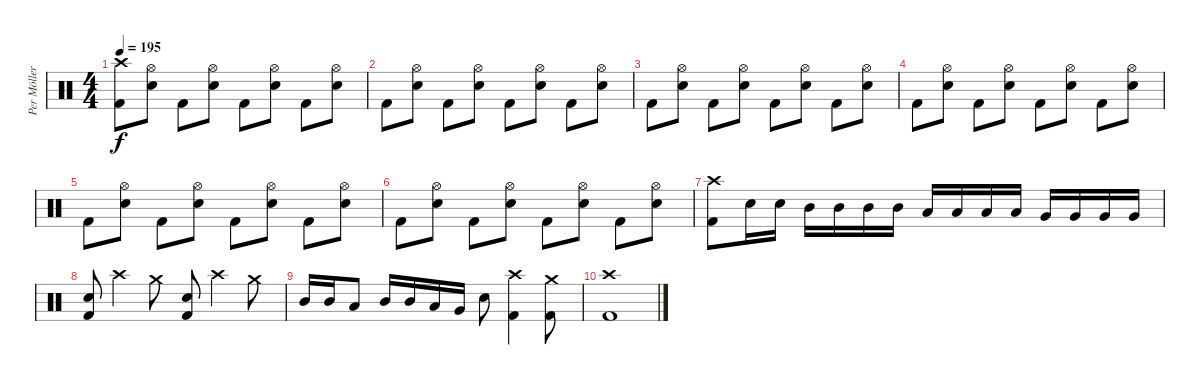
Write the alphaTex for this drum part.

\track ("Per Möller Jensen" "Per Möller") {instrument percussion}
\staff {score}
\articulation defaults
\ts (4 4)
\tempo 195
\clef neutral
\ks c
("Crash high (hit)" "Kick (hit) 2").8{dy f} ("Hi-Hat (open)" "Snare (hit) 2").8 "Kick (hit) 2".8 ("Hi-Hat (open)" "Snare (hit) 2").8 "Kick (hit) 2".8 ("Hi-Hat (open)" "Snare (hit) 2").8 "Kick (hit) 2".8 ("Hi-Hat (open)" "Snare (hit) 2").8 |
"Kick (hit) 2".8 ("Hi-Hat (open)" "Snare (hit) 2").8 "Kick (hit) 2".8 ("Hi-Hat (open)" "Snare (hit) 2").8 "Kick (hit) 2".8 ("Hi-Hat (open)" "Snare (hit) 2").8 "Kick (hit) 2".8 ("Hi-Hat (open)" "Snare (hit) 2").8 |
"Kick (hit) 2".8 ("Hi-Hat (open)" "Snare (hit) 2").8 "Kick (hit) 2".8 ("Hi-Hat (open)" "Snare (hit) 2").8 "Kick (hit) 2".8 ("Hi-Hat (open)" "Snare (hit) 2").8 "Kick (hit) 2".8 ("Hi-Hat (open)" "Snare (hit) 2").8 |
"Kick (hit) 2".8 ("Hi-Hat (open)" "Snare (hit) 2").8 "Kick (hit) 2".8 ("Hi-Hat (open)" "Snare (hit) 2").8 "Kick (hit) 2".8 ("Hi-Hat (open)" "Snare (hit) 2").8 "Kick (hit) 2".8 ("Hi-Hat (open)" "Snare (hit) 2").8 |
"Kick (hit) 2".8 ("Hi-Hat (open)" "Snare (hit) 2").8 "Kick (hit) 2".8 ("Hi-Hat (open)" "Snare (hit) 2").8 "Kick (hit) 2".8 ("Hi-Hat (open)" "Snare (hit) 2").8 "Kick (hit) 2".8 ("Hi-Hat (open)" "Snare (hit) 2").8 |
"Kick (hit) 2".8 ("Hi-Hat (open)" "Snare (hit) 2").8 "Kick (hit) 2".8 ("Hi-Hat (open)" "Snare (hit) 2").8 "Kick (hit) 2".8 ("Hi-Hat (open)" "Snare (hit) 2").8 "Kick (hit) 2".8 ("Hi-Hat (open)" "Snare (hit) 2").8 |
("Crash high (hit)" "Kick (hit) 2").8 "Snare (hit) 2".16 "Snare (hit) 2".16 "Mid Tom (hit)".16 "Mid Tom (hit)".16 "Mid Tom (hit)".16 "Mid Tom (hit)".16 "Low Tom (hit)".16 "Low Tom (hit)".16 "Low Tom (hit)".16 "Low Tom (hit)".16 "Very Low Tom (hit)".16 "Very Low Tom (hit)".16 "Very Low Tom (hit)".16 "Very Low Tom (hit)".16 |
("Snare (hit) 2" "Kick (hit) 2").8 "Crash high (hit)".4 "Crash medium (hit)".8 ("Snare (hit) 2" "Kick (hit) 2").8 "Crash high (hit)".4 "Crash medium (hit)".8 |
"Mid Tom (hit)".16 "Mid Tom (hit)".16 "Low Tom (hit)".8 "Mid Tom (hit)".16 "Mid Tom (hit)".16 "Low Tom (hit)".16 "Very Low Tom (hit)".16 "Snare (hit) 2".8 ("Crash high (hit)" "Kick (hit) 2").4 ("Crash medium (hit)" "Kick (hit) 2").8 |
("Crash high (hit)" "Kick (hit) 2").1
